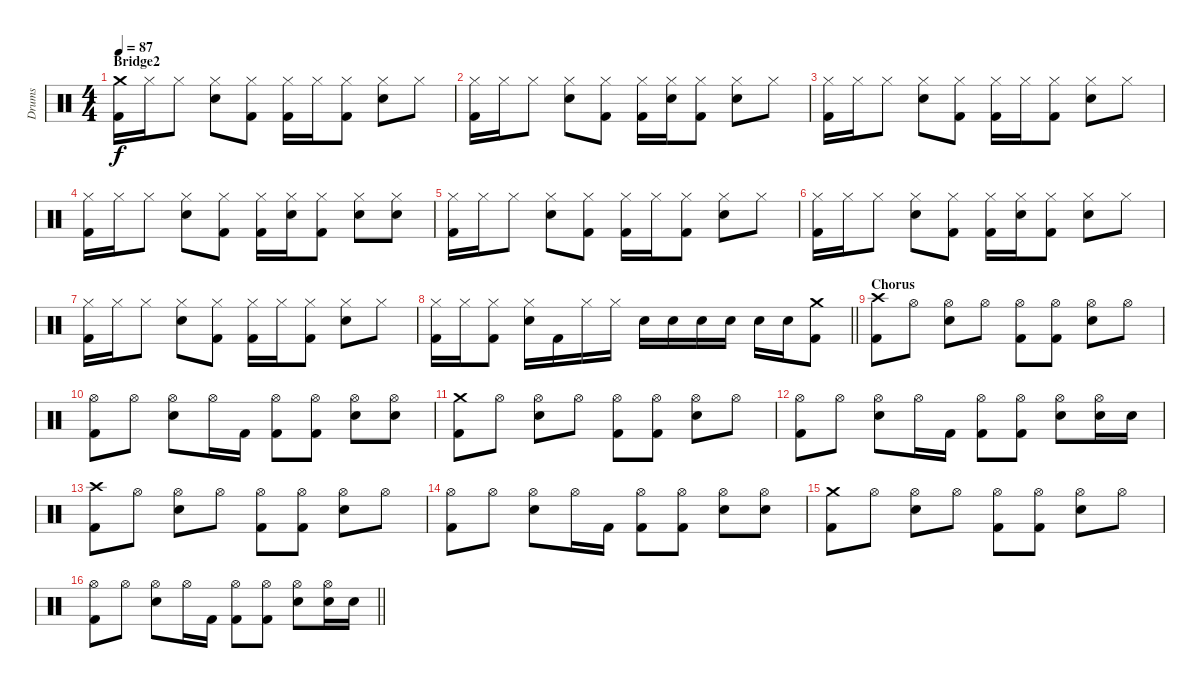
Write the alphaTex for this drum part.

\track ("Drums" "Drums") {instrument percussion}
\staff {score}
\articulation defaults
\ts (4 4)
\section ("" "Bridge2")
\tempo 87
\clef neutral
\ks c
("Crash medium (hit)" "Kick (hit) 2").16{dy f} "Hi-Hat (closed)".16 "Hi-Hat (closed)".8 ("Hi-Hat (closed)" "Electric Snare (hit)").8 ("Hi-Hat (closed)" "Kick (hit) 2").8 ("Hi-Hat (closed)" "Kick (hit) 2").16 "Hi-Hat (closed)".16 ("Hi-Hat (closed)" "Kick (hit) 2").8 ("Hi-Hat (closed)" "Electric Snare (hit)").8 "Hi-Hat (closed)".8 |
("Hi-Hat (closed)" "Kick (hit) 2").16 "Hi-Hat (closed)".16 "Hi-Hat (closed)".8 ("Hi-Hat (closed)" "Electric Snare (hit)").8 ("Hi-Hat (closed)" "Kick (hit) 2").8 ("Hi-Hat (closed)" "Kick (hit) 2").16 ("Hi-Hat (closed)" "Electric Snare (hit)").16 ("Hi-Hat (closed)" "Kick (hit) 2").8 ("Hi-Hat (closed)" "Electric Snare (hit)").8 "Hi-Hat (closed)".8 |
("Hi-Hat (closed)" "Kick (hit) 2").16 "Hi-Hat (closed)".16 "Hi-Hat (closed)".8 ("Hi-Hat (closed)" "Electric Snare (hit)").8 ("Hi-Hat (closed)" "Kick (hit) 2").8 ("Hi-Hat (closed)" "Kick (hit) 2").16 "Hi-Hat (closed)".16 ("Hi-Hat (closed)" "Kick (hit) 2").8 ("Hi-Hat (closed)" "Electric Snare (hit)").8 "Hi-Hat (closed)".8 |
("Hi-Hat (closed)" "Kick (hit) 2").16 "Hi-Hat (closed)".16 "Hi-Hat (closed)".8 ("Hi-Hat (closed)" "Electric Snare (hit)").8 ("Hi-Hat (closed)" "Kick (hit) 2").8 ("Hi-Hat (closed)" "Kick (hit) 2").16 ("Hi-Hat (closed)" "Electric Snare (hit)").16 ("Hi-Hat (closed)" "Kick (hit) 2").8 ("Hi-Hat (closed)" "Electric Snare (hit)").8 ("Hi-Hat (closed)" "Electric Snare (hit)").8 |
("Hi-Hat (closed)" "Kick (hit) 2").16 "Hi-Hat (closed)".16 "Hi-Hat (closed)".8 ("Hi-Hat (closed)" "Electric Snare (hit)").8 ("Hi-Hat (closed)" "Kick (hit) 2").8 ("Hi-Hat (closed)" "Kick (hit) 2").16 "Hi-Hat (closed)".16 ("Hi-Hat (closed)" "Kick (hit) 2").8 ("Hi-Hat (closed)" "Electric Snare (hit)").8 "Hi-Hat (closed)".8 |
("Hi-Hat (closed)" "Kick (hit) 2").16 "Hi-Hat (closed)".16 "Hi-Hat (closed)".8 ("Hi-Hat (closed)" "Electric Snare (hit)").8 ("Hi-Hat (closed)" "Kick (hit) 2").8 ("Hi-Hat (closed)" "Kick (hit) 2").16 ("Hi-Hat (closed)" "Electric Snare (hit)").16 ("Hi-Hat (closed)" "Kick (hit) 2").8 ("Hi-Hat (closed)" "Electric Snare (hit)").8 "Hi-Hat (closed)".8 |
("Hi-Hat (closed)" "Kick (hit) 2").16 "Hi-Hat (closed)".16 "Hi-Hat (closed)".8 ("Hi-Hat (closed)" "Electric Snare (hit)").8 ("Hi-Hat (closed)" "Kick (hit) 2").8 ("Hi-Hat (closed)" "Kick (hit) 2").16 "Hi-Hat (closed)".16 ("Hi-Hat (closed)" "Kick (hit) 2").8 ("Hi-Hat (closed)" "Electric Snare (hit)").8 "Hi-Hat (closed)".8 |
\barLineRight lightlight
("Hi-Hat (closed)" "Kick (hit) 2").16 "Hi-Hat (closed)".16 ("Hi-Hat (closed)" "Kick (hit) 2").8 ("Hi-Hat (closed)" "Electric Snare (hit)").16 "Kick (hit) 2".16 "Hi-Hat (closed)".16 "Hi-Hat (closed)".16 "Electric Snare (hit)".16 "Electric Snare (hit)".16 "Electric Snare (hit)".16 "Electric Snare (hit)".16 "Electric Snare (hit)".16 "Electric Snare (hit)".16 ("Crash medium (hit)" "Kick (hit) 2").8 |
\section ("" "Chorus")
("Crash high (hit)" "Kick (hit) 2").8 "Hi-Hat (open)".8 ("Hi-Hat (open)" "Snare (hit) 2").8 "Hi-Hat (open)".8 ("Hi-Hat (open)" "Kick (hit) 2").8 ("Hi-Hat (open)" "Kick (hit) 2").8 ("Hi-Hat (open)" "Snare (hit) 2").8 "Hi-Hat (open)".8 |
("Hi-Hat (open)" "Kick (hit) 2").8 "Hi-Hat (open)".8 ("Hi-Hat (open)" "Snare (hit) 2").8 "Hi-Hat (open)".16 "Kick (hit) 2".16 ("Hi-Hat (open)" "Kick (hit) 2").8 ("Hi-Hat (open)" "Kick (hit) 2").8 ("Hi-Hat (open)" "Snare (hit) 2").8 ("Hi-Hat (open)" "Snare (hit) 2").8 |
("Crash medium (hit)" "Kick (hit) 2").8 "Hi-Hat (open)".8 ("Hi-Hat (open)" "Snare (hit) 2").8 "Hi-Hat (open)".8 ("Hi-Hat (open)" "Kick (hit) 2").8 ("Hi-Hat (open)" "Kick (hit) 2").8 ("Hi-Hat (open)" "Snare (hit) 2").8 "Hi-Hat (open)".8 |
("Hi-Hat (open)" "Kick (hit) 2").8 "Hi-Hat (open)".8 ("Hi-Hat (open)" "Snare (hit) 2").8 "Hi-Hat (open)".16 "Kick (hit) 2".16 ("Hi-Hat (open)" "Kick (hit) 2").8 ("Hi-Hat (open)" "Kick (hit) 2").8 ("Hi-Hat (open)" "Snare (hit) 2").8 ("Hi-Hat (open)" "Snare (hit) 2").16 "Snare (hit) 2".16 |
("Crash high (hit)" "Kick (hit) 2").8 "Hi-Hat (open)".8 ("Hi-Hat (open)" "Snare (hit) 2").8 "Hi-Hat (open)".8 ("Hi-Hat (open)" "Kick (hit) 2").8 ("Hi-Hat (open)" "Kick (hit) 2").8 ("Hi-Hat (open)" "Snare (hit) 2").8 "Hi-Hat (open)".8 |
("Hi-Hat (open)" "Kick (hit) 2").8 "Hi-Hat (open)".8 ("Hi-Hat (open)" "Snare (hit) 2").8 "Hi-Hat (open)".16 "Kick (hit) 2".16 ("Hi-Hat (open)" "Kick (hit) 2").8 ("Hi-Hat (open)" "Kick (hit) 2").8 ("Hi-Hat (open)" "Snare (hit) 2").8 ("Hi-Hat (open)" "Snare (hit) 2").8 |
("Crash medium (hit)" "Kick (hit) 2").8 "Hi-Hat (open)".8 ("Hi-Hat (open)" "Snare (hit) 2").8 "Hi-Hat (open)".8 ("Hi-Hat (open)" "Kick (hit) 2").8 ("Hi-Hat (open)" "Kick (hit) 2").8 ("Hi-Hat (open)" "Snare (hit) 2").8 "Hi-Hat (open)".8 |
\barLineRight lightlight
("Hi-Hat (open)" "Kick (hit) 2").8 "Hi-Hat (open)".8 ("Hi-Hat (open)" "Snare (hit) 2").8 "Hi-Hat (open)".16 "Kick (hit) 2".16 ("Hi-Hat (open)" "Kick (hit) 2").8 ("Hi-Hat (open)" "Kick (hit) 2").8 ("Hi-Hat (open)" "Snare (hit) 2").8 ("Hi-Hat (open)" "Snare (hit) 2").16 "Snare (hit) 2".16
